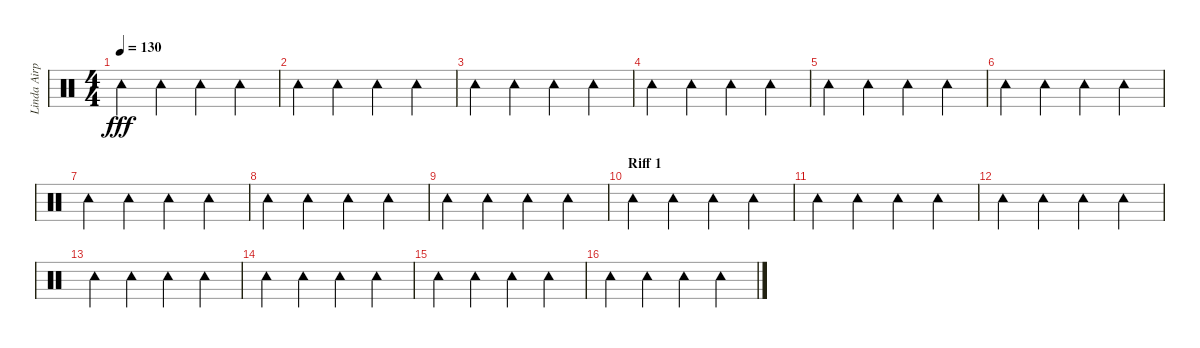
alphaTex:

\track ("Linda Airplane" "Linda Airp") {instrument percussion}
\staff {score}
\articulation defaults
\ts (4 4)
\tempo 130
\clef neutral
\ks c "Tambourine (hit)".4{dy fff} "Tambourine (hit)".4 "Tambourine (hit)".4 "Tambourine (hit)".4
|
"Tambourine (hit)".4 "Tambourine (hit)".4 "Tambourine (hit)".4 "Tambourine (hit)".4 |
"Tambourine (hit)".4 "Tambourine (hit)".4 "Tambourine (hit)".4 "Tambourine (hit)".4 |
"Tambourine (hit)".4 "Tambourine (hit)".4 "Tambourine (hit)".4 "Tambourine (hit)".4 |
"Tambourine (hit)".4 "Tambourine (hit)".4 "Tambourine (hit)".4 "Tambourine (hit)".4 |
"Tambourine (hit)".4 "Tambourine (hit)".4 "Tambourine (hit)".4 "Tambourine (hit)".4 |
"Tambourine (hit)".4 "Tambourine (hit)".4 "Tambourine (hit)".4 "Tambourine (hit)".4 |
"Tambourine (hit)".4 "Tambourine (hit)".4 "Tambourine (hit)".4 "Tambourine (hit)".4 |
"Tambourine (hit)".4 "Tambourine (hit)".4 "Tambourine (hit)".4 "Tambourine (hit)".4 |
\section ("" "Riff 1")
"Tambourine (hit)".4 "Tambourine (hit)".4 "Tambourine (hit)".4 "Tambourine (hit)".4 |
"Tambourine (hit)".4 "Tambourine (hit)".4 "Tambourine (hit)".4 "Tambourine (hit)".4 |
"Tambourine (hit)".4 "Tambourine (hit)".4 "Tambourine (hit)".4 "Tambourine (hit)".4 |
"Tambourine (hit)".4 "Tambourine (hit)".4 "Tambourine (hit)".4 "Tambourine (hit)".4 |
"Tambourine (hit)".4 "Tambourine (hit)".4 "Tambourine (hit)".4 "Tambourine (hit)".4 |
"Tambourine (hit)".4 "Tambourine (hit)".4 "Tambourine (hit)".4 "Tambourine (hit)".4 |
"Tambourine (hit)".4 "Tambourine (hit)".4 "Tambourine (hit)".4 "Tambourine (hit)".4
